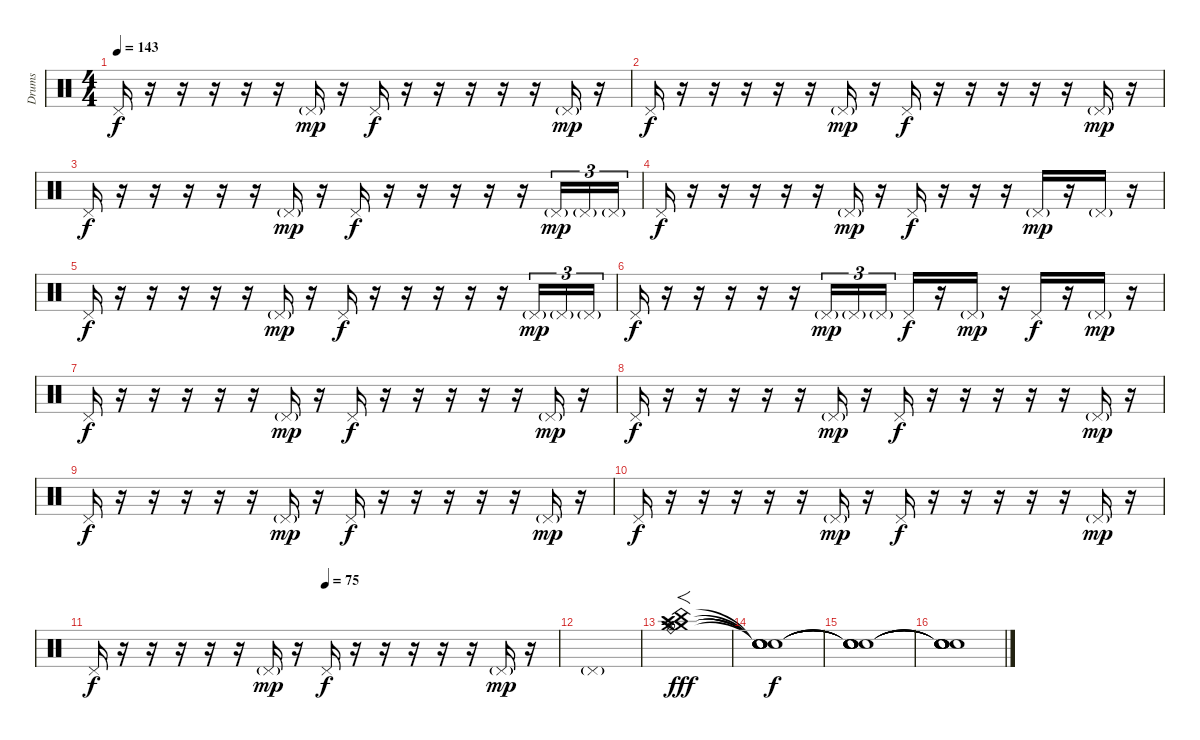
\track ("Drums" "Drums") {instrument percussion}
\staff {score}
\articulation defaults
\ts (4 4)
\tempo 143
\clef neutral
\ks c "Pedal Hi-Hat (hit)".16{dy f}
r.16 r.16 r.16 r.16 r.16 "Pedal Hi-Hat (hit)"{g}.16{dy mp} r.16 "Pedal Hi-Hat (hit)".16{dy f} r.16 r.16 r.16 r.16 r.16 "Pedal Hi-Hat (hit)"{g}.16{dy mp} r.16 |
"Pedal Hi-Hat (hit)".16{dy f} r.16 r.16 r.16 r.16 r.16 "Pedal Hi-Hat (hit)"{g}.16{dy mp} r.16 "Pedal Hi-Hat (hit)".16{dy f} r.16 r.16 r.16 r.16 r.16 "Pedal Hi-Hat (hit)"{g}.16{dy mp} r.16 |
"Pedal Hi-Hat (hit)".16{dy f} r.16 r.16 r.16 r.16 r.16 "Pedal Hi-Hat (hit)"{g}.16{dy mp} r.16 "Pedal Hi-Hat (hit)".16{dy f} r.16 r.16 r.16 r.16 r.16 "Pedal Hi-Hat (hit)"{g}.16{tu (3 2) dy mp} "Pedal Hi-Hat (hit)"{g}.16{tu (3 2)} "Pedal Hi-Hat (hit)"{g}.16{tu (3 2)} |
"Pedal Hi-Hat (hit)".16{dy f} r.16 r.16 r.16 r.16 r.16 "Pedal Hi-Hat (hit)"{g}.16{dy mp} r.16 "Pedal Hi-Hat (hit)".16{dy f} r.16 r.16 r.16 "Pedal Hi-Hat (hit)"{g}.16{dy mp} r.16 "Pedal Hi-Hat (hit)"{g}.16 r.16 |
"Pedal Hi-Hat (hit)".16{dy f} r.16 r.16 r.16 r.16 r.16 "Pedal Hi-Hat (hit)"{g}.16{dy mp} r.16 "Pedal Hi-Hat (hit)".16{dy f} r.16 r.16 r.16 r.16 r.16 "Pedal Hi-Hat (hit)"{g}.16{tu (3 2) dy mp} "Pedal Hi-Hat (hit)"{g}.16{tu (3 2)} "Pedal Hi-Hat (hit)"{g}.16{tu (3 2)} |
"Pedal Hi-Hat (hit)".16{dy f} r.16 r.16 r.16 r.16 r.16 "Pedal Hi-Hat (hit)"{g}.16{tu (3 2) dy mp} "Pedal Hi-Hat (hit)"{g}.16{tu (3 2)} "Pedal Hi-Hat (hit)"{g}.16{tu (3 2)} "Pedal Hi-Hat (hit)".16{dy f} r.16 "Pedal Hi-Hat (hit)"{g}.16{dy mp} r.16 "Pedal Hi-Hat (hit)".16{dy f} r.16 "Pedal Hi-Hat (hit)"{g}.16{dy mp} r.16 |
"Pedal Hi-Hat (hit)".16{dy f} r.16 r.16 r.16 r.16 r.16 "Pedal Hi-Hat (hit)"{g}.16{dy mp} r.16 "Pedal Hi-Hat (hit)".16{dy f} r.16 r.16 r.16 r.16 r.16 "Pedal Hi-Hat (hit)"{g}.16{dy mp} r.16 |
"Pedal Hi-Hat (hit)".16{dy f} r.16 r.16 r.16 r.16 r.16 "Pedal Hi-Hat (hit)"{g}.16{dy mp} r.16 "Pedal Hi-Hat (hit)".16{dy f} r.16 r.16 r.16 r.16 r.16 "Pedal Hi-Hat (hit)"{g}.16{dy mp} r.16 |
"Pedal Hi-Hat (hit)".16{dy f} r.16 r.16 r.16 r.16 r.16 "Pedal Hi-Hat (hit)"{g}.16{dy mp} r.16 "Pedal Hi-Hat (hit)".16{dy f} r.16 r.16 r.16 r.16 r.16 "Pedal Hi-Hat (hit)"{g}.16{dy mp} r.16 |
"Pedal Hi-Hat (hit)".16{dy f} r.16 r.16 r.16 r.16 r.16 "Pedal Hi-Hat (hit)"{g}.16{dy mp} r.16 "Pedal Hi-Hat (hit)".16{dy f} r.16 r.16 r.16 r.16 r.16 "Pedal Hi-Hat (hit)"{g}.16{dy mp} r.16 |
\tempo (75 0.5)
"Pedal Hi-Hat (hit)".16{dy f} r.16 r.16 r.16 r.16 r.16 "Pedal Hi-Hat (hit)"{g}.16{dy mp} r.16 "Pedal Hi-Hat (hit)".16{dy f} r.16 r.16 r.16 r.16 r.16 "Pedal Hi-Hat (hit)"{g}.16{dy mp} r.16 |
"Pedal Hi-Hat (hit)"{g}.1 |
("Crash medium (hit)" "Crash medium (hit)" "China (hit)" "Hi-Hat (open)" "Crash high (hit)" "Ride (bell)").1{f dy fff} |
("Snare (hit)"{t} "Snare (hit)"{t} "Snare (hit)"{t} "Snare (hit)"{t} "Snare (hit)"{t} "Snare (hit)"{t}).1{dy f} |
("Snare (hit)"{t} "Snare (hit)"{t} "Snare (hit)"{t} "Snare (hit)"{t} "Snare (hit)"{t} "Snare (hit)"{t}).1 |
("Snare (hit)"{t} "Snare (hit)"{t} "Snare (hit)"{t} "Snare (hit)"{t} "Snare (hit)"{t} "Snare (hit)"{t}).1
